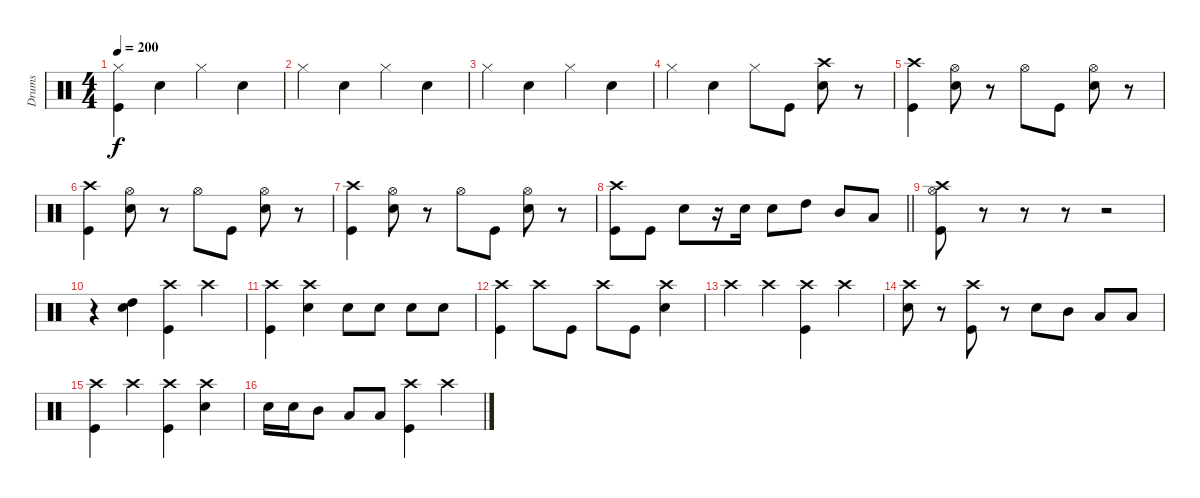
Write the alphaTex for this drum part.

\track ("Drums" "Drums") {instrument percussion}
\staff {score}
\articulation defaults
\ts (4 4)
\tempo 200
\clef neutral
\ks c
("Hi-Hat (closed)" "Kick (hit)").4{dy f} "Snare (hit) 2".4 "Hi-Hat (closed)".4 "Snare (hit) 2".4 |
"Hi-Hat (closed)".4 "Snare (hit) 2".4 "Hi-Hat (closed)".4 "Snare (hit) 2".4 |
"Hi-Hat (closed)".4 "Snare (hit) 2".4 "Hi-Hat (closed)".4 "Snare (hit) 2".4 |
"Hi-Hat (closed)".4 "Snare (hit) 2".4 "Hi-Hat (closed)".8 "Kick (hit)".8 ("Crash high (hit)" "Snare (hit) 2").8 r.8 |
("Crash high (hit)" "Kick (hit)").4 ("Hi-Hat (open)" "Snare (hit) 2").8 r.8 "Hi-Hat (open)".8 "Kick (hit)".8 ("Hi-Hat (open)" "Snare (hit) 2").8 r.8 |
("Crash high (hit)" "Kick (hit)").4 ("Hi-Hat (open)" "Snare (hit) 2").8 r.8 "Hi-Hat (open)".8 "Kick (hit)".8 ("Hi-Hat (open)" "Snare (hit) 2").8 r.8 |
("Crash high (hit)" "Kick (hit)").4 ("Hi-Hat (open)" "Snare (hit) 2").8 r.8 "Hi-Hat (open)".8 "Kick (hit)".8 ("Hi-Hat (open)" "Snare (hit) 2").8 r.8 |
\barLineRight lightlight
("Crash high (hit)" "Kick (hit)").8 "Kick (hit)".8 "Snare (hit) 2".8 r.16 "Snare (hit) 2".16 "Snare (hit) 2".8 "High Tom (hit)".8 "Mid Tom (hit)".8 "Low Tom (hit)".8 |
("Crash high (hit)" "Hi-Hat (open)" "Kick (hit)").8 r.8 r.8 r.8 r.2 |
r.4 ("Snare (hit) 2" "High Tom (hit)").4 ("Crash high (hit)" "Kick (hit)").4 "Crash high (hit)".4 |
("Crash high (hit)" "Kick (hit)").4 ("Crash high (hit)" "Snare (hit) 2").4 "Snare (hit) 2".8 "Snare (hit) 2".8 "Snare (hit) 2".8 "Snare (hit) 2".8 |
("Crash high (hit)" "Kick (hit)").4 "Crash high (hit)".8 "Kick (hit)".8 "Crash high (hit)".8 "Kick (hit)".8 ("Crash high (hit)" "Snare (hit) 2").4 |
"Crash high (hit)".4 "Crash high (hit)".4 ("Crash high (hit)" "Kick (hit)").4 "Crash high (hit)".4 |
("Crash high (hit)" "Snare (hit) 2").8 r.8 ("Crash high (hit)" "Kick (hit)").8 r.8 "Snare (hit) 2".8 "Mid Tom (hit)".8 "Low Tom (hit)".8 "Low Floor Tom (hit)".8 |
("Crash high (hit)" "Kick (hit)").4 "Crash high (hit)".4 ("Crash high (hit)" "Kick (hit)").4 ("Crash high (hit)" "Snare (hit) 2").4 |
"Snare (hit) 2".16 "Snare (hit) 2".16 "Mid Tom (hit)".8 "Low Tom (hit)".8 "Low Floor Tom (hit)".8 ("Crash high (hit)" "Kick (hit)").4 "Crash high (hit)".4
